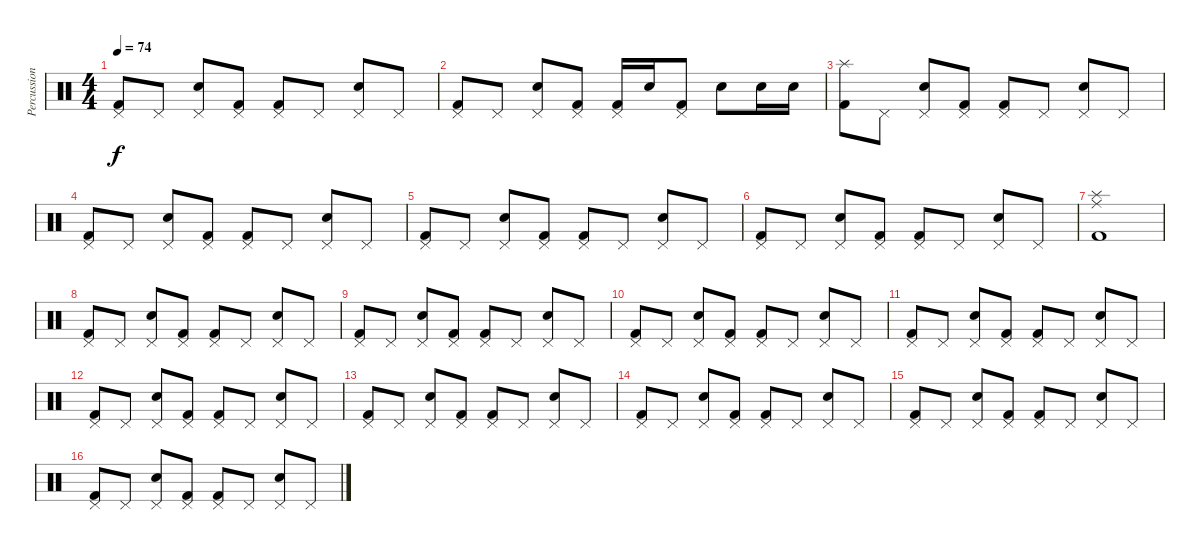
\track ("Percussion" "Percussion") {instrument percussion}
\staff {score}
\articulation defaults
\ts (4 4)
\tempo 74
\clef neutral
\ks c
("Pedal Hi-Hat (hit)" "Kick (hit) 2").8{dy f} "Pedal Hi-Hat (hit)".8 ("Pedal Hi-Hat (hit)" "Snare (hit) 2").8 ("Pedal Hi-Hat (hit)" "Kick (hit) 2").8 ("Pedal Hi-Hat (hit)" "Kick (hit) 2").8 "Pedal Hi-Hat (hit)".8 ("Pedal Hi-Hat (hit)" "Snare (hit) 2").8 "Pedal Hi-Hat (hit)".8 |
("Pedal Hi-Hat (hit)" "Kick (hit) 2").8 "Pedal Hi-Hat (hit)".8 ("Pedal Hi-Hat (hit)" "Snare (hit) 2").8 ("Pedal Hi-Hat (hit)" "Kick (hit) 2").8 ("Pedal Hi-Hat (hit)" "Kick (hit) 2").16 "Snare (hit) 2".16 ("Pedal Hi-Hat (hit)" "Kick (hit) 2").8 "Snare (hit) 2".8 "Snare (hit) 2".16 "Snare (hit) 2".16 |
("Splash (hit)" "Kick (hit) 2").8 "Pedal Hi-Hat (hit)".8 ("Pedal Hi-Hat (hit)" "Snare (hit) 2").8 ("Pedal Hi-Hat (hit)" "Kick (hit) 2").8 ("Pedal Hi-Hat (hit)" "Kick (hit) 2").8 "Pedal Hi-Hat (hit)".8 ("Pedal Hi-Hat (hit)" "Snare (hit) 2").8 "Pedal Hi-Hat (hit)".8 |
("Pedal Hi-Hat (hit)" "Kick (hit) 2").8 "Pedal Hi-Hat (hit)".8 ("Pedal Hi-Hat (hit)" "Snare (hit) 2").8 ("Pedal Hi-Hat (hit)" "Kick (hit) 2").8 ("Pedal Hi-Hat (hit)" "Kick (hit) 2").8 "Pedal Hi-Hat (hit)".8 ("Pedal Hi-Hat (hit)" "Snare (hit) 2").8 "Pedal Hi-Hat (hit)".8 |
("Pedal Hi-Hat (hit)" "Kick (hit) 2").8 "Pedal Hi-Hat (hit)".8 ("Pedal Hi-Hat (hit)" "Snare (hit) 2").8 ("Pedal Hi-Hat (hit)" "Kick (hit) 2").8 ("Pedal Hi-Hat (hit)" "Kick (hit) 2").8 "Pedal Hi-Hat (hit)".8 ("Pedal Hi-Hat (hit)" "Snare (hit) 2").8 "Pedal Hi-Hat (hit)".8 |
("Pedal Hi-Hat (hit)" "Kick (hit) 2").8 "Pedal Hi-Hat (hit)".8 ("Pedal Hi-Hat (hit)" "Snare (hit) 2").8 ("Pedal Hi-Hat (hit)" "Kick (hit) 2").8 ("Pedal Hi-Hat (hit)" "Kick (hit) 2").8 "Pedal Hi-Hat (hit)".8 ("Pedal Hi-Hat (hit)" "Snare (hit) 2").8 "Pedal Hi-Hat (hit)".8 |
("Splash (hit)" "Ride (middle)" "Kick (hit) 2").1 |
("Pedal Hi-Hat (hit)" "Kick (hit) 2").8 "Pedal Hi-Hat (hit)".8 ("Pedal Hi-Hat (hit)" "Snare (hit) 2").8 ("Pedal Hi-Hat (hit)" "Kick (hit) 2").8 ("Pedal Hi-Hat (hit)" "Kick (hit) 2").8 "Pedal Hi-Hat (hit)".8 ("Pedal Hi-Hat (hit)" "Snare (hit) 2").8 "Pedal Hi-Hat (hit)".8 |
("Pedal Hi-Hat (hit)" "Kick (hit) 2").8 "Pedal Hi-Hat (hit)".8 ("Pedal Hi-Hat (hit)" "Snare (hit) 2").8 ("Pedal Hi-Hat (hit)" "Kick (hit) 2").8 ("Pedal Hi-Hat (hit)" "Kick (hit) 2").8 "Pedal Hi-Hat (hit)".8 ("Pedal Hi-Hat (hit)" "Snare (hit) 2").8 "Pedal Hi-Hat (hit)".8 |
("Pedal Hi-Hat (hit)" "Kick (hit) 2").8 "Pedal Hi-Hat (hit)".8 ("Pedal Hi-Hat (hit)" "Snare (hit) 2").8 ("Pedal Hi-Hat (hit)" "Kick (hit) 2").8 ("Pedal Hi-Hat (hit)" "Kick (hit) 2").8 "Pedal Hi-Hat (hit)".8 ("Pedal Hi-Hat (hit)" "Snare (hit) 2").8 "Pedal Hi-Hat (hit)".8 |
("Pedal Hi-Hat (hit)" "Kick (hit) 2").8 "Pedal Hi-Hat (hit)".8 ("Pedal Hi-Hat (hit)" "Snare (hit) 2").8 ("Pedal Hi-Hat (hit)" "Kick (hit) 2").8 ("Pedal Hi-Hat (hit)" "Kick (hit) 2").8 "Pedal Hi-Hat (hit)".8 ("Pedal Hi-Hat (hit)" "Snare (hit) 2").8 "Pedal Hi-Hat (hit)".8 |
("Pedal Hi-Hat (hit)" "Kick (hit) 2").8 "Pedal Hi-Hat (hit)".8 ("Pedal Hi-Hat (hit)" "Snare (hit) 2").8 ("Pedal Hi-Hat (hit)" "Kick (hit) 2").8 ("Pedal Hi-Hat (hit)" "Kick (hit) 2").8 "Pedal Hi-Hat (hit)".8 ("Pedal Hi-Hat (hit)" "Snare (hit) 2").8 "Pedal Hi-Hat (hit)".8 |
("Pedal Hi-Hat (hit)" "Kick (hit) 2").8 "Pedal Hi-Hat (hit)".8 ("Pedal Hi-Hat (hit)" "Snare (hit) 2").8 ("Pedal Hi-Hat (hit)" "Kick (hit) 2").8 ("Pedal Hi-Hat (hit)" "Kick (hit) 2").8 "Pedal Hi-Hat (hit)".8 ("Pedal Hi-Hat (hit)" "Snare (hit) 2").8 "Pedal Hi-Hat (hit)".8 |
("Pedal Hi-Hat (hit)" "Kick (hit) 2").8 "Pedal Hi-Hat (hit)".8 ("Pedal Hi-Hat (hit)" "Snare (hit) 2").8 ("Pedal Hi-Hat (hit)" "Kick (hit) 2").8 ("Pedal Hi-Hat (hit)" "Kick (hit) 2").8 "Pedal Hi-Hat (hit)".8 ("Pedal Hi-Hat (hit)" "Snare (hit) 2").8 "Pedal Hi-Hat (hit)".8 |
("Pedal Hi-Hat (hit)" "Kick (hit) 2").8 "Pedal Hi-Hat (hit)".8 ("Pedal Hi-Hat (hit)" "Snare (hit) 2").8 ("Pedal Hi-Hat (hit)" "Kick (hit) 2").8 ("Pedal Hi-Hat (hit)" "Kick (hit) 2").8 "Pedal Hi-Hat (hit)".8 ("Pedal Hi-Hat (hit)" "Snare (hit) 2").8 "Pedal Hi-Hat (hit)".8 |
("Pedal Hi-Hat (hit)" "Kick (hit) 2").8 "Pedal Hi-Hat (hit)".8 ("Pedal Hi-Hat (hit)" "Snare (hit) 2").8 ("Pedal Hi-Hat (hit)" "Kick (hit) 2").8 ("Pedal Hi-Hat (hit)" "Kick (hit) 2").8 "Pedal Hi-Hat (hit)".8 ("Pedal Hi-Hat (hit)" "Snare (hit) 2").8 "Pedal Hi-Hat (hit)".8
